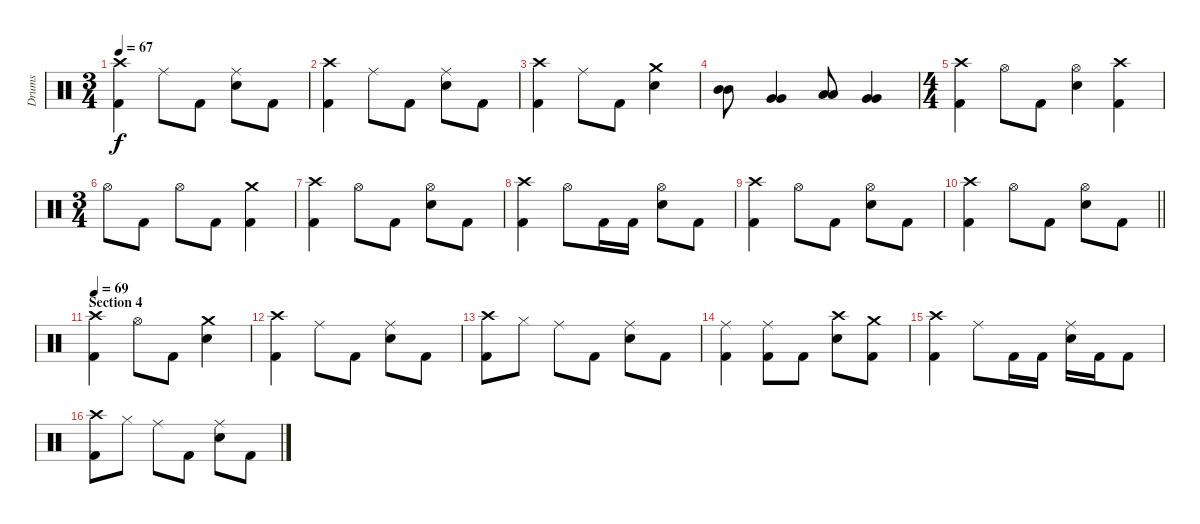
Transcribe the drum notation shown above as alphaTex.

\track ("Drums" "Drums") {instrument percussion}
\staff {score}
\articulation defaults
\ts (3 4)
\tempo 67
\clef neutral
\ks c
("Crash high (hit)" "Kick (hit) 2").4{dy f} "Ride (middle)".8 "Kick (hit) 2".8 ("Ride (middle)" "Electric Snare (hit)").8 "Kick (hit) 2".8 |
("Crash high (hit)" "Kick (hit) 2").4 "Ride (middle)".8 "Kick (hit) 2".8 ("Ride (middle)" "Electric Snare (hit)").8 "Kick (hit) 2".8 |
("Crash high (hit)" "Kick (hit) 2").4 "Ride (middle)".8 "Kick (hit) 2".8 ("Crash medium (hit)" "Electric Snare (hit)").4 |
("Mid Tom (hit)" "Mid Tom (hit)").8 ("Very Low Tom (hit)" "Very Low Tom (hit)").4 ("Low Tom (hit)" "Low Tom (hit)").8 ("Very Low Tom (hit)" "Very Low Tom (hit)").4 |
\ts (4 4)
("Crash high (hit)" "Kick (hit) 2").4 "Hi-Hat (open)".8 "Kick (hit) 2".8 ("Hi-Hat (open)" "Electric Snare (hit)").4 ("Crash high (hit)" "Kick (hit) 2").4 |
\ts (3 4)
"Hi-Hat (open)".8 "Kick (hit) 2".8 "Hi-Hat (open)".8 "Kick (hit) 2".8 ("Crash medium (hit)" "Kick (hit) 2").4 |
("Crash high (hit)" "Kick (hit) 2").4 "Hi-Hat (open)".8 "Kick (hit) 2".8 ("Hi-Hat (open)" "Electric Snare (hit)").8 "Kick (hit) 2".8 |
("Crash high (hit)" "Kick (hit) 2").4 "Hi-Hat (open)".8 "Kick (hit) 2".16 "Kick (hit) 2".16 ("Hi-Hat (open)" "Electric Snare (hit)").8 "Kick (hit) 2".8 |
("Crash high (hit)" "Kick (hit) 2").4 "Hi-Hat (open)".8 "Kick (hit) 2".8 ("Hi-Hat (open)" "Electric Snare (hit)").8 "Kick (hit) 2".8 |
\barLineRight lightlight
("Crash high (hit)" "Kick (hit) 2").4 "Hi-Hat (open)".8 "Kick (hit) 2".8 ("Hi-Hat (open)" "Electric Snare (hit)").8 "Kick (hit) 2".8 |
\section ("" "Section 4")
\tempo 69
("Crash high (hit)" "Kick (hit) 2").4 "Hi-Hat (open)".8 "Kick (hit) 2".8 ("Crash medium (hit)" "Electric Snare (hit)").4 |
("Crash high (hit)" "Kick (hit) 2").4 "Ride (middle)".8 "Kick (hit) 2".8 ("Ride (middle)" "Electric Snare (hit)").8 "Kick (hit) 2".8 |
("Crash high (hit)" "Kick (hit) 2").8 "Hi-Hat (closed)".8 "Ride (middle)".8 "Kick (hit) 2".8 ("Ride (middle)" "Electric Snare (hit)").8 "Kick (hit) 2".8 |
("Ride (middle)" "Kick (hit) 2").4 ("Ride (middle)" "Kick (hit) 2").8 "Kick (hit) 2".8 ("Crash high (hit)" "Electric Snare (hit)").8 ("Crash medium (hit)" "Kick (hit) 2").8 |
("Crash high (hit)" "Kick (hit) 2").4 "Ride (middle)".8 "Kick (hit) 2".16 "Kick (hit) 2".16 ("Ride (middle)" "Electric Snare (hit)").16 "Kick (hit) 2".16 "Kick (hit) 2".8 |
("Crash high (hit)" "Kick (hit) 2").8 "Hi-Hat (closed)".8 "Ride (middle)".8 "Kick (hit) 2".8 ("Ride (middle)" "Electric Snare (hit)").8 "Kick (hit) 2".8
